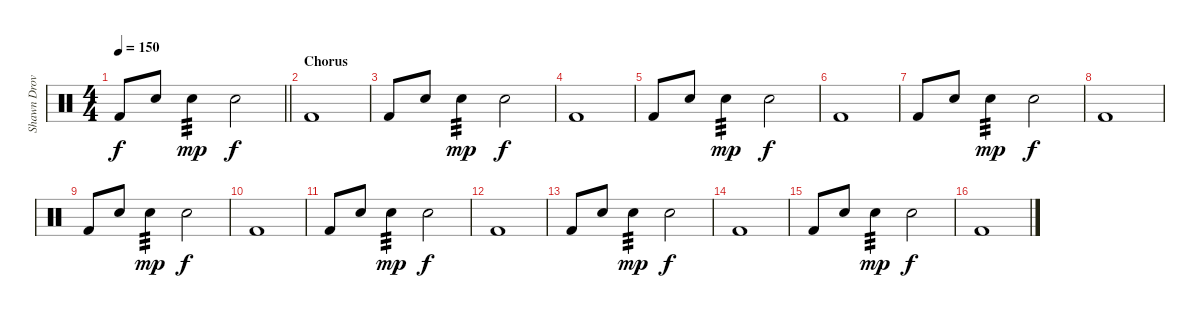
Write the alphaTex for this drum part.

\track ("Shawn Drover" "Shawn Drov") {instrument percussion}
\staff {score}
\articulation defaults
\ts (4 4)
\tempo 150
\clef neutral
\barLineRight lightlight
\ks c "Kick (hit) 2".8{dy f} "Snare (hit) 2".8 "Snare (hit) 2".4{tp 3 dy mp} "Snare (hit) 2".2{dy f}
|
\section ("" "Chorus")
"Kick (hit) 2".1 |
"Kick (hit) 2".8 "Snare (hit) 2".8 "Snare (hit) 2".4{tp 3 dy mp} "Snare (hit) 2".2{dy f} |
"Kick (hit) 2".1 |
"Kick (hit) 2".8 "Snare (hit) 2".8 "Snare (hit) 2".4{tp 3 dy mp} "Snare (hit) 2".2{dy f} |
"Kick (hit) 2".1 |
"Kick (hit) 2".8 "Snare (hit) 2".8 "Snare (hit) 2".4{tp 3 dy mp} "Snare (hit) 2".2{dy f} |
"Kick (hit) 2".1 |
"Kick (hit) 2".8 "Snare (hit) 2".8 "Snare (hit) 2".4{tp 3 dy mp} "Snare (hit) 2".2{dy f} |
"Kick (hit) 2".1 |
"Kick (hit) 2".8 "Snare (hit) 2".8 "Snare (hit) 2".4{tp 3 dy mp} "Snare (hit) 2".2{dy f} |
"Kick (hit) 2".1 |
"Kick (hit) 2".8 "Snare (hit) 2".8 "Snare (hit) 2".4{tp 3 dy mp} "Snare (hit) 2".2{dy f} |
"Kick (hit) 2".1 |
"Kick (hit) 2".8 "Snare (hit) 2".8 "Snare (hit) 2".4{tp 3 dy mp} "Snare (hit) 2".2{dy f} |
"Kick (hit) 2".1
